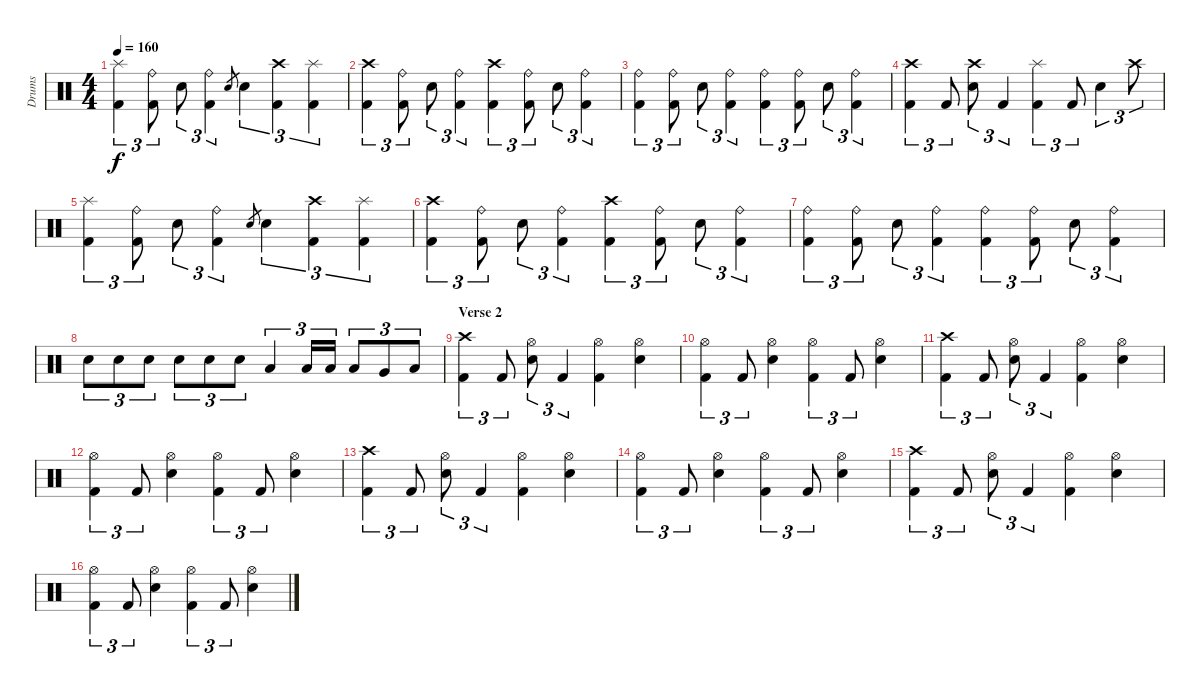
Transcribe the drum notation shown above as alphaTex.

\track ("Drums" "Drums") {instrument percussion}
\staff {score}
\articulation defaults
\ts (4 4)
\tempo 160
\clef neutral
\ks c
("Splash (hit)" "Kick (hit) 2").4{tu (3 2) dy f} ("Ride (bell)" "Kick (hit) 2").8{tu (3 2)} "Snare (hit) 2".8{tu (3 2)} ("Ride (bell)" "Kick (hit) 2").4{tu (3 2)} "Snare (hit) 2".8{gr} "Snare (hit) 2".4{tu (3 2)} ("Crash high (hit)" "Kick (hit) 2").4{tu (3 2)} ("Splash (hit)" "Kick (hit) 2").4{tu (3 2)} |
("Crash high (hit)" "Kick (hit) 2").4{tu (3 2)} ("Ride (bell)" "Kick (hit) 2").8{tu (3 2)} "Snare (hit) 2".8{tu (3 2)} ("Ride (bell)" "Kick (hit) 2").4{tu (3 2)} ("Crash high (hit)" "Kick (hit) 2").4{tu (3 2)} ("Ride (bell)" "Kick (hit) 2").8{tu (3 2)} "Snare (hit) 2".8{tu (3 2)} ("Ride (bell)" "Kick (hit) 2").4{tu (3 2)} |
("Ride (bell)" "Kick (hit) 2").4{tu (3 2)} ("Ride (bell)" "Kick (hit) 2").8{tu (3 2)} "Snare (hit) 2".8{tu (3 2)} ("Ride (bell)" "Kick (hit) 2").4{tu (3 2)} ("Ride (bell)" "Kick (hit) 2").4{tu (3 2)} ("Ride (bell)" "Kick (hit) 2").8{tu (3 2)} "Snare (hit) 2".8{tu (3 2)} ("Ride (bell)" "Kick (hit) 2").4{tu (3 2)} |
("Crash high (hit)" "Kick (hit) 2").4{tu (3 2)} "Kick (hit) 2".8{tu (3 2)} ("Crash high (hit)" "Snare (hit) 2").8{tu (3 2)} "Kick (hit) 2".4{tu (3 2)} ("Splash (hit)" "Kick (hit) 2").4{tu (3 2)} "Kick (hit) 2".8{tu (3 2)} "Snare (hit) 2".4{tu (3 2)} "Crash high (hit)".8{tu (3 2)} |
("Splash (hit)" "Kick (hit) 2").4{tu (3 2)} ("Ride (bell)" "Kick (hit) 2").8{tu (3 2)} "Snare (hit) 2".8{tu (3 2)} ("Ride (bell)" "Kick (hit) 2").4{tu (3 2)} "Snare (hit) 2".8{gr} "Snare (hit) 2".4{tu (3 2)} ("Crash high (hit)" "Kick (hit) 2").4{tu (3 2)} ("Splash (hit)" "Kick (hit) 2").4{tu (3 2)} |
("Crash high (hit)" "Kick (hit) 2").4{tu (3 2)} ("Ride (bell)" "Kick (hit) 2").8{tu (3 2)} "Snare (hit) 2".8{tu (3 2)} ("Ride (bell)" "Kick (hit) 2").4{tu (3 2)} ("Crash high (hit)" "Kick (hit) 2").4{tu (3 2)} ("Ride (bell)" "Kick (hit) 2").8{tu (3 2)} "Snare (hit) 2".8{tu (3 2)} ("Ride (bell)" "Kick (hit) 2").4{tu (3 2)} |
("Ride (bell)" "Kick (hit) 2").4{tu (3 2)} ("Ride (bell)" "Kick (hit) 2").8{tu (3 2)} "Snare (hit) 2".8{tu (3 2)} ("Ride (bell)" "Kick (hit) 2").4{tu (3 2)} ("Ride (bell)" "Kick (hit) 2").4{tu (3 2)} ("Ride (bell)" "Kick (hit) 2").8{tu (3 2)} "Snare (hit) 2".8{tu (3 2)} ("Ride (bell)" "Kick (hit) 2").4{tu (3 2)} |
"Snare (hit) 2".8{tu (3 2)} "Snare (hit) 2".8{tu (3 2)} "Snare (hit) 2".8{tu (3 2)} "Snare (hit) 2".8{tu (3 2)} "Snare (hit) 2".8{tu (3 2)} "Snare (hit) 2".8{tu (3 2)} "Low Tom (hit)".4{tu (3 2)} "Low Tom (hit)".16{tu (3 2)} "Low Tom (hit)".16{tu (3 2)} "Low Tom (hit)".8{tu (3 2)} "Very Low Tom (hit)".8{tu (3 2)} "Low Floor Tom (hit)".8{tu (3 2)} |
\section ("" "Verse 2")
("Crash high (hit)" "Kick (hit) 2").4{tu (3 2)} "Kick (hit) 2".8{tu (3 2)} ("Hi-Hat (open)" "Snare (hit) 2").8{tu (3 2)} "Kick (hit) 2".4{tu (3 2)} ("Hi-Hat (open)" "Kick (hit) 2").4 ("Hi-Hat (open)" "Snare (hit) 2").4 |
("Hi-Hat (open)" "Kick (hit) 2").4{tu (3 2)} "Kick (hit) 2".8{tu (3 2)} ("Hi-Hat (open)" "Snare (hit) 2").4 ("Hi-Hat (open)" "Kick (hit) 2").4{tu (3 2)} "Kick (hit) 2".8{tu (3 2)} ("Hi-Hat (open)" "Snare (hit) 2").4 |
("Crash high (hit)" "Kick (hit) 2").4{tu (3 2)} "Kick (hit) 2".8{tu (3 2)} ("Hi-Hat (open)" "Snare (hit) 2").8{tu (3 2)} "Kick (hit) 2".4{tu (3 2)} ("Hi-Hat (open)" "Kick (hit) 2").4 ("Hi-Hat (open)" "Snare (hit) 2").4 |
("Hi-Hat (open)" "Kick (hit) 2").4{tu (3 2)} "Kick (hit) 2".8{tu (3 2)} ("Hi-Hat (open)" "Snare (hit) 2").4 ("Hi-Hat (open)" "Kick (hit) 2").4{tu (3 2)} "Kick (hit) 2".8{tu (3 2)} ("Hi-Hat (open)" "Snare (hit) 2").4 |
("Crash high (hit)" "Kick (hit) 2").4{tu (3 2)} "Kick (hit) 2".8{tu (3 2)} ("Hi-Hat (open)" "Snare (hit) 2").8{tu (3 2)} "Kick (hit) 2".4{tu (3 2)} ("Hi-Hat (open)" "Kick (hit) 2").4 ("Hi-Hat (open)" "Snare (hit) 2").4 |
("Hi-Hat (open)" "Kick (hit) 2").4{tu (3 2)} "Kick (hit) 2".8{tu (3 2)} ("Hi-Hat (open)" "Snare (hit) 2").4 ("Hi-Hat (open)" "Kick (hit) 2").4{tu (3 2)} "Kick (hit) 2".8{tu (3 2)} ("Hi-Hat (open)" "Snare (hit) 2").4 |
("Crash high (hit)" "Kick (hit) 2").4{tu (3 2)} "Kick (hit) 2".8{tu (3 2)} ("Hi-Hat (open)" "Snare (hit) 2").8{tu (3 2)} "Kick (hit) 2".4{tu (3 2)} ("Hi-Hat (open)" "Kick (hit) 2").4 ("Hi-Hat (open)" "Snare (hit) 2").4 |
("Hi-Hat (open)" "Kick (hit) 2").4{tu (3 2)} "Kick (hit) 2".8{tu (3 2)} ("Hi-Hat (open)" "Snare (hit) 2").4 ("Hi-Hat (open)" "Kick (hit) 2").4{tu (3 2)} "Kick (hit) 2".8{tu (3 2)} ("Hi-Hat (open)" "Snare (hit) 2").4
